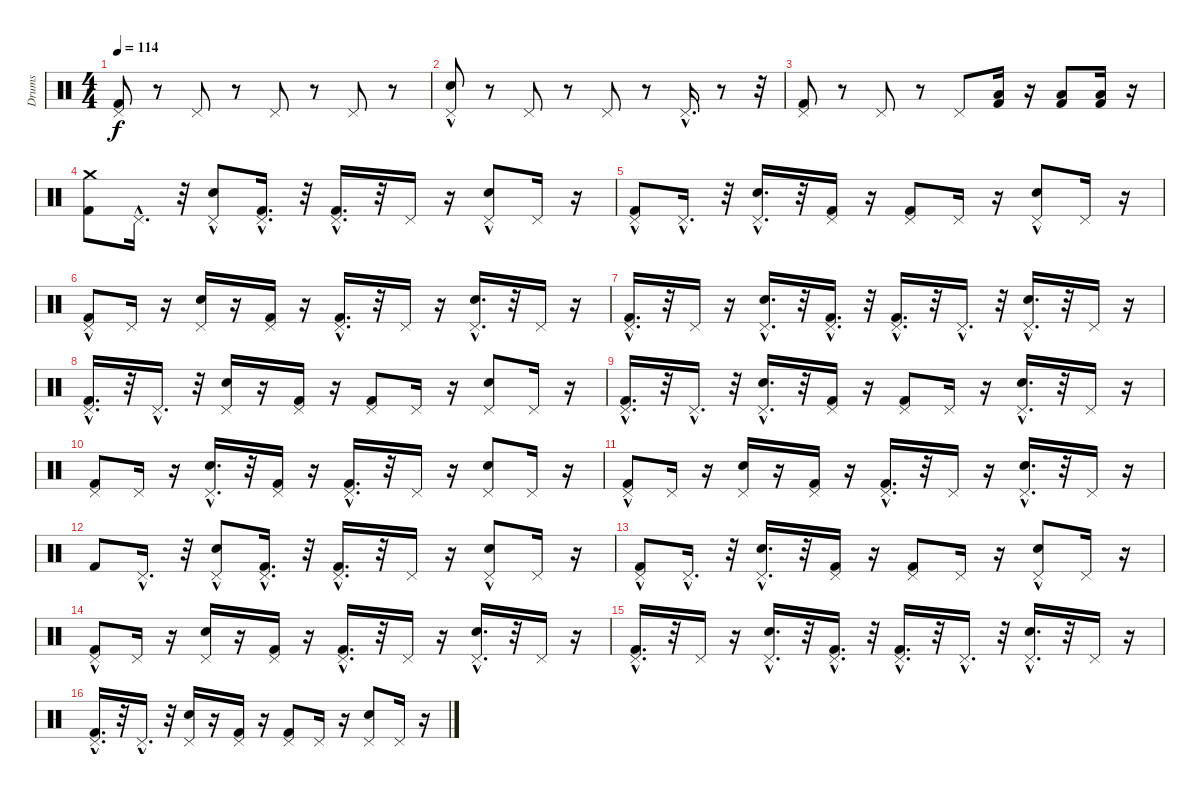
\track ("Drums" "Drums") {instrument percussion}
\staff {score}
\articulation defaults
\ts (4 4)
\tempo 114
\clef neutral
\ks c
("Pedal Hi-Hat (hit)" "Kick (hit) 2").8{dy f} r.8 "Pedal Hi-Hat (hit)".8 r.8 "Pedal Hi-Hat (hit)".8 r.8 "Pedal Hi-Hat (hit)".8 r.8 |
("Snare (hit) 2" "Pedal Hi-Hat (hit)"{hac}).8 r.8 "Pedal Hi-Hat (hit)".8 r.8 "Pedal Hi-Hat (hit)".8 r.8 "Pedal Hi-Hat (hit)"{hac}.16{d} r.8 r.32 |
("Kick (hit) 2" "Pedal Hi-Hat (hit)").8 r.8 "Pedal Hi-Hat (hit)".8 r.8 "Pedal Hi-Hat (hit)".8 ("Kick (hit) 2" "Low Floor Tom (hit)").16 r.16 ("Low Floor Tom (hit)" "Kick (hit) 2").8 ("Kick (hit) 2" "Low Floor Tom (hit)").16 r.16 |
("Kick (hit) 2" "Crash medium (hit)").8 "Pedal Hi-Hat (hit)"{hac}.16{d} r.32 ("Pedal Hi-Hat (hit)"{hac} "Snare (hit) 2").8 ("Pedal Hi-Hat (hit)"{hac} "Kick (hit) 2").16{d} r.32 ("Pedal Hi-Hat (hit)"{hac} "Kick (hit) 2"{hac}).16{d} r.32 "Pedal Hi-Hat (hit)".16 r.16 ("Pedal Hi-Hat (hit)"{hac} "Snare (hit) 2").8 "Pedal Hi-Hat (hit)".16 r.16 |
("Pedal Hi-Hat (hit)"{hac} "Kick (hit) 2").8 "Pedal Hi-Hat (hit)"{hac}.16{d} r.32 ("Pedal Hi-Hat (hit)"{hac} "Snare (hit) 2").16{d} r.32 ("Pedal Hi-Hat (hit)" "Kick (hit) 2").16 r.16 ("Pedal Hi-Hat (hit)" "Kick (hit) 2").8 "Pedal Hi-Hat (hit)".16 r.16 ("Pedal Hi-Hat (hit)"{hac} "Snare (hit) 2").8 "Pedal Hi-Hat (hit)".16 r.16 |
("Pedal Hi-Hat (hit)"{hac} "Kick (hit) 2").8 "Pedal Hi-Hat (hit)".16 r.16 ("Pedal Hi-Hat (hit)" "Snare (hit) 2").16 r.16 ("Pedal Hi-Hat (hit)" "Kick (hit) 2").16 r.16 ("Pedal Hi-Hat (hit)"{hac} "Kick (hit) 2").16{d} r.32 "Pedal Hi-Hat (hit)".16 r.16 ("Pedal Hi-Hat (hit)"{hac} "Snare (hit) 2"{hac}).16{d} r.32 "Pedal Hi-Hat (hit)".16 r.16 |
("Pedal Hi-Hat (hit)"{hac} "Kick (hit) 2"{hac}).16{d} r.32 "Pedal Hi-Hat (hit)".16 r.16 ("Pedal Hi-Hat (hit)"{hac} "Snare (hit) 2"{hac}).16{d} r.32 ("Pedal Hi-Hat (hit)"{hac} "Kick (hit) 2").16{d} r.32 ("Pedal Hi-Hat (hit)" "Kick (hit) 2"{hac}).16{d} r.32 "Pedal Hi-Hat (hit)"{hac}.16{d} r.32 ("Pedal Hi-Hat (hit)"{hac} "Snare (hit) 2"{hac}).16{d} r.32 "Pedal Hi-Hat (hit)".16 r.16 |
("Pedal Hi-Hat (hit)"{hac} "Kick (hit) 2"{hac}).16{d} r.32 "Pedal Hi-Hat (hit)"{hac}.16{d} r.32 ("Pedal Hi-Hat (hit)" "Snare (hit) 2").16 r.16 ("Pedal Hi-Hat (hit)" "Kick (hit) 2").16 r.16 ("Pedal Hi-Hat (hit)" "Kick (hit) 2").8 "Pedal Hi-Hat (hit)".16 r.16 ("Snare (hit) 2" "Pedal Hi-Hat (hit)").8 "Pedal Hi-Hat (hit)".16 r.16 |
("Pedal Hi-Hat (hit)" "Kick (hit) 2"{hac}).16{d} r.32 "Pedal Hi-Hat (hit)"{hac}.16{d} r.32 ("Pedal Hi-Hat (hit)" "Snare (hit) 2"{hac}).16{d} r.32 ("Pedal Hi-Hat (hit)" "Kick (hit) 2").16 r.16 ("Pedal Hi-Hat (hit)" "Kick (hit) 2").8 "Pedal Hi-Hat (hit)".16 r.16 ("Pedal Hi-Hat (hit)" "Snare (hit) 2"{hac}).16{d} r.32 "Pedal Hi-Hat (hit)".16 r.16 |
("Pedal Hi-Hat (hit)" "Kick (hit) 2").8 "Pedal Hi-Hat (hit)".16 r.16 ("Pedal Hi-Hat (hit)" "Snare (hit) 2"{hac}).16{d} r.32 ("Pedal Hi-Hat (hit)" "Kick (hit) 2").16 r.16 ("Pedal Hi-Hat (hit)" "Kick (hit) 2"{hac}).16{d} r.32 "Pedal Hi-Hat (hit)".16 r.16 ("Pedal Hi-Hat (hit)" "Snare (hit) 2").8 "Pedal Hi-Hat (hit)".16 r.16 |
("Pedal Hi-Hat (hit)"{hac} "Kick (hit) 2").8 "Pedal Hi-Hat (hit)".16 r.16 ("Pedal Hi-Hat (hit)" "Snare (hit) 2").16 r.16 ("Pedal Hi-Hat (hit)" "Kick (hit) 2").16 r.16 ("Pedal Hi-Hat (hit)" "Kick (hit) 2"{hac}).16{d} r.32 "Pedal Hi-Hat (hit)".16 r.16 ("Pedal Hi-Hat (hit)" "Snare (hit) 2"{hac}).16{d} r.32 "Pedal Hi-Hat (hit)".16 r.16 |
"Kick (hit) 2".8 "Pedal Hi-Hat (hit)"{hac}.16{d} r.32 ("Pedal Hi-Hat (hit)"{hac} "Snare (hit) 2").8 ("Pedal Hi-Hat (hit)"{hac} "Kick (hit) 2").16{d} r.32 ("Pedal Hi-Hat (hit)"{hac} "Kick (hit) 2"{hac}).16{d} r.32 "Pedal Hi-Hat (hit)".16 r.16 ("Pedal Hi-Hat (hit)"{hac} "Snare (hit) 2").8 "Pedal Hi-Hat (hit)".16 r.16 |
("Pedal Hi-Hat (hit)"{hac} "Kick (hit) 2").8 "Pedal Hi-Hat (hit)"{hac}.16{d} r.32 ("Pedal Hi-Hat (hit)"{hac} "Snare (hit) 2").16{d} r.32 ("Pedal Hi-Hat (hit)" "Kick (hit) 2").16 r.16 ("Pedal Hi-Hat (hit)" "Kick (hit) 2").8 "Pedal Hi-Hat (hit)".16 r.16 ("Pedal Hi-Hat (hit)"{hac} "Snare (hit) 2").8 "Pedal Hi-Hat (hit)".16 r.16 |
("Pedal Hi-Hat (hit)"{hac} "Kick (hit) 2").8 "Pedal Hi-Hat (hit)".16 r.16 ("Pedal Hi-Hat (hit)" "Snare (hit) 2").16 r.16 ("Pedal Hi-Hat (hit)" "Kick (hit) 2").16 r.16 ("Pedal Hi-Hat (hit)"{hac} "Kick (hit) 2").16{d} r.32 "Pedal Hi-Hat (hit)".16 r.16 ("Pedal Hi-Hat (hit)"{hac} "Snare (hit) 2"{hac}).16{d} r.32 "Pedal Hi-Hat (hit)".16 r.16 |
("Pedal Hi-Hat (hit)"{hac} "Kick (hit) 2"{hac}).16{d} r.32 "Pedal Hi-Hat (hit)".16 r.16 ("Pedal Hi-Hat (hit)"{hac} "Snare (hit) 2"{hac}).16{d} r.32 ("Pedal Hi-Hat (hit)"{hac} "Kick (hit) 2").16{d} r.32 ("Pedal Hi-Hat (hit)" "Kick (hit) 2"{hac}).16{d} r.32 "Pedal Hi-Hat (hit)"{hac}.16{d} r.32 ("Pedal Hi-Hat (hit)"{hac} "Snare (hit) 2"{hac}).16{d} r.32 "Pedal Hi-Hat (hit)".16 r.16 |
("Pedal Hi-Hat (hit)"{hac} "Kick (hit) 2"{hac}).16{d} r.32 "Pedal Hi-Hat (hit)"{hac}.16{d} r.32 ("Pedal Hi-Hat (hit)" "Snare (hit) 2").16 r.16 ("Pedal Hi-Hat (hit)" "Kick (hit) 2").16 r.16 ("Pedal Hi-Hat (hit)" "Kick (hit) 2").8 "Pedal Hi-Hat (hit)".16 r.16 ("Snare (hit) 2" "Pedal Hi-Hat (hit)").8 "Pedal Hi-Hat (hit)".16 r.16
